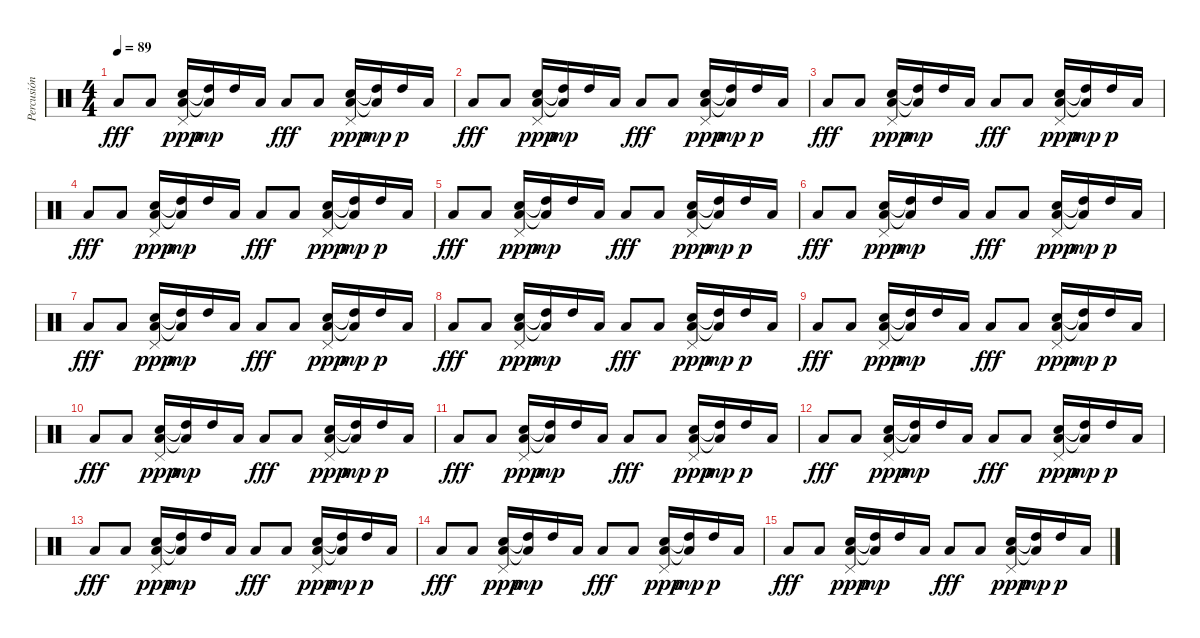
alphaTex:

\track ("Percusión" "Percusión") {instrument percussion}
\staff {score}
\articulation defaults
\ts (4 4)
\tempo 89
\clef neutral
\ks c "Low Floor Tom (hit)".8{dy fff} "Low Floor Tom (hit)".8
("Electric Snare (hit)" "Low Floor Tom (hit)" "Pedal Hi-Hat (hit)").16{dy ppp} ("High Tom (hit)"{t} "Low Floor Tom (hit)"{t}).16{dy mp} "High Tom (hit)".16 "Low Tom (hit)".16 "Low Floor Tom (hit)".8{dy fff} "Low Floor Tom (hit)".8 ("Electric Snare (hit)" "Low Floor Tom (hit)" "Pedal Hi-Hat (hit)").16{dy ppp} ("High Tom (hit)"{t} "Low Floor Tom (hit)"{t}).16{dy mp} "High Tom (hit)".16{dy p} "Low Tom (hit)".16 |
"Low Floor Tom (hit)".8{dy fff} "Low Floor Tom (hit)".8 ("Electric Snare (hit)" "Low Floor Tom (hit)" "Pedal Hi-Hat (hit)").16{dy ppp} ("High Tom (hit)"{t} "Low Floor Tom (hit)"{t}).16{dy mp} "High Tom (hit)".16 "Low Tom (hit)".16 "Low Floor Tom (hit)".8{dy fff} "Low Floor Tom (hit)".8 ("Electric Snare (hit)" "Low Floor Tom (hit)" "Pedal Hi-Hat (hit)").16{dy ppp} ("High Tom (hit)"{t} "Low Floor Tom (hit)"{t}).16{dy mp} "High Tom (hit)".16{dy p} "Low Tom (hit)".16 |
"Low Floor Tom (hit)".8{dy fff} "Low Floor Tom (hit)".8 ("Electric Snare (hit)" "Low Floor Tom (hit)" "Pedal Hi-Hat (hit)").16{dy ppp} ("High Tom (hit)"{t} "Low Floor Tom (hit)"{t}).16{dy mp} "High Tom (hit)".16 "Low Tom (hit)".16 "Low Floor Tom (hit)".8{dy fff} "Low Floor Tom (hit)".8 ("Electric Snare (hit)" "Low Floor Tom (hit)" "Pedal Hi-Hat (hit)").16{dy ppp} ("High Tom (hit)"{t} "Low Floor Tom (hit)"{t}).16{dy mp} "High Tom (hit)".16{dy p} "Low Tom (hit)".16 |
"Low Floor Tom (hit)".8{dy fff} "Low Floor Tom (hit)".8 ("Electric Snare (hit)" "Low Floor Tom (hit)" "Pedal Hi-Hat (hit)").16{dy ppp} ("High Tom (hit)"{t} "Low Floor Tom (hit)"{t}).16{dy mp} "High Tom (hit)".16 "Low Tom (hit)".16 "Low Floor Tom (hit)".8{dy fff} "Low Floor Tom (hit)".8 ("Electric Snare (hit)" "Low Floor Tom (hit)" "Pedal Hi-Hat (hit)").16{dy ppp} ("High Tom (hit)"{t} "Low Floor Tom (hit)"{t}).16{dy mp} "High Tom (hit)".16{dy p} "Low Tom (hit)".16 |
"Low Floor Tom (hit)".8{dy fff} "Low Floor Tom (hit)".8 ("Electric Snare (hit)" "Low Floor Tom (hit)" "Pedal Hi-Hat (hit)").16{dy ppp} ("High Tom (hit)"{t} "Low Floor Tom (hit)"{t}).16{dy mp} "High Tom (hit)".16 "Low Tom (hit)".16 "Low Floor Tom (hit)".8{dy fff} "Low Floor Tom (hit)".8 ("Electric Snare (hit)" "Low Floor Tom (hit)" "Pedal Hi-Hat (hit)").16{dy ppp} ("High Tom (hit)"{t} "Low Floor Tom (hit)"{t}).16{dy mp} "High Tom (hit)".16{dy p} "Low Tom (hit)".16 |
"Low Floor Tom (hit)".8{dy fff} "Low Floor Tom (hit)".8 ("Electric Snare (hit)" "Low Floor Tom (hit)" "Pedal Hi-Hat (hit)").16{dy ppp} ("High Tom (hit)"{t} "Low Floor Tom (hit)"{t}).16{dy mp} "High Tom (hit)".16 "Low Tom (hit)".16 "Low Floor Tom (hit)".8{dy fff} "Low Floor Tom (hit)".8 ("Electric Snare (hit)" "Low Floor Tom (hit)" "Pedal Hi-Hat (hit)").16{dy ppp} ("High Tom (hit)"{t} "Low Floor Tom (hit)"{t}).16{dy mp} "High Tom (hit)".16{dy p} "Low Tom (hit)".16 |
"Low Floor Tom (hit)".8{dy fff} "Low Floor Tom (hit)".8 ("Electric Snare (hit)" "Low Floor Tom (hit)" "Pedal Hi-Hat (hit)").16{dy ppp} ("High Tom (hit)"{t} "Low Floor Tom (hit)"{t}).16{dy mp} "High Tom (hit)".16 "Low Tom (hit)".16 "Low Floor Tom (hit)".8{dy fff} "Low Floor Tom (hit)".8 ("Electric Snare (hit)" "Low Floor Tom (hit)" "Pedal Hi-Hat (hit)").16{dy ppp} ("High Tom (hit)"{t} "Low Floor Tom (hit)"{t}).16{dy mp} "High Tom (hit)".16{dy p} "Low Tom (hit)".16 |
"Low Floor Tom (hit)".8{dy fff} "Low Floor Tom (hit)".8 ("Electric Snare (hit)" "Low Floor Tom (hit)" "Pedal Hi-Hat (hit)").16{dy ppp} ("High Tom (hit)"{t} "Low Floor Tom (hit)"{t}).16{dy mp} "High Tom (hit)".16 "Low Tom (hit)".16 "Low Floor Tom (hit)".8{dy fff} "Low Floor Tom (hit)".8 ("Electric Snare (hit)" "Low Floor Tom (hit)" "Pedal Hi-Hat (hit)").16{dy ppp} ("High Tom (hit)"{t} "Low Floor Tom (hit)"{t}).16{dy mp} "High Tom (hit)".16{dy p} "Low Tom (hit)".16 |
"Low Floor Tom (hit)".8{dy fff} "Low Floor Tom (hit)".8 ("Electric Snare (hit)" "Low Floor Tom (hit)" "Pedal Hi-Hat (hit)").16{dy ppp} ("High Tom (hit)"{t} "Low Floor Tom (hit)"{t}).16{dy mp} "High Tom (hit)".16 "Low Tom (hit)".16 "Low Floor Tom (hit)".8{dy fff} "Low Floor Tom (hit)".8 ("Electric Snare (hit)" "Low Floor Tom (hit)" "Pedal Hi-Hat (hit)").16{dy ppp} ("High Tom (hit)"{t} "Low Floor Tom (hit)"{t}).16{dy mp} "High Tom (hit)".16{dy p} "Low Tom (hit)".16 |
"Low Floor Tom (hit)".8{dy fff} "Low Floor Tom (hit)".8 ("Electric Snare (hit)" "Low Floor Tom (hit)" "Pedal Hi-Hat (hit)").16{dy ppp} ("High Tom (hit)"{t} "Low Floor Tom (hit)"{t}).16{dy mp} "High Tom (hit)".16 "Low Tom (hit)".16 "Low Floor Tom (hit)".8{dy fff} "Low Floor Tom (hit)".8 ("Electric Snare (hit)" "Low Floor Tom (hit)" "Pedal Hi-Hat (hit)").16{dy ppp} ("High Tom (hit)"{t} "Low Floor Tom (hit)"{t}).16{dy mp} "High Tom (hit)".16{dy p} "Low Tom (hit)".16 |
"Low Floor Tom (hit)".8{dy fff} "Low Floor Tom (hit)".8 ("Electric Snare (hit)" "Low Floor Tom (hit)" "Pedal Hi-Hat (hit)").16{dy ppp} ("High Tom (hit)"{t} "Low Floor Tom (hit)"{t}).16{dy mp} "High Tom (hit)".16 "Low Tom (hit)".16 "Low Floor Tom (hit)".8{dy fff} "Low Floor Tom (hit)".8 ("Electric Snare (hit)" "Low Floor Tom (hit)" "Pedal Hi-Hat (hit)").16{dy ppp} ("High Tom (hit)"{t} "Low Floor Tom (hit)"{t}).16{dy mp} "High Tom (hit)".16{dy p} "Low Tom (hit)".16 |
"Low Floor Tom (hit)".8{dy fff} "Low Floor Tom (hit)".8 ("Electric Snare (hit)" "Low Floor Tom (hit)" "Pedal Hi-Hat (hit)").16{dy ppp} ("High Tom (hit)"{t} "Low Floor Tom (hit)"{t}).16{dy mp} "High Tom (hit)".16 "Low Tom (hit)".16 "Low Floor Tom (hit)".8{dy fff} "Low Floor Tom (hit)".8 ("Electric Snare (hit)" "Low Floor Tom (hit)" "Pedal Hi-Hat (hit)").16{dy ppp} ("High Tom (hit)"{t} "Low Floor Tom (hit)"{t}).16{dy mp} "High Tom (hit)".16{dy p} "Low Tom (hit)".16 |
"Low Floor Tom (hit)".8{dy fff} "Low Floor Tom (hit)".8 ("Electric Snare (hit)" "Low Floor Tom (hit)" "Pedal Hi-Hat (hit)").16{dy ppp} ("High Tom (hit)"{t} "Low Floor Tom (hit)"{t}).16{dy mp} "High Tom (hit)".16 "Low Tom (hit)".16 "Low Floor Tom (hit)".8{dy fff} "Low Floor Tom (hit)".8 ("Electric Snare (hit)" "Low Floor Tom (hit)" "Pedal Hi-Hat (hit)").16{dy ppp} ("High Tom (hit)"{t} "Low Floor Tom (hit)"{t}).16{dy mp} "High Tom (hit)".16{dy p} "Low Tom (hit)".16 |
"Low Floor Tom (hit)".8{dy fff} "Low Floor Tom (hit)".8 ("Electric Snare (hit)" "Low Floor Tom (hit)" "Pedal Hi-Hat (hit)").16{dy ppp} ("High Tom (hit)"{t} "Low Floor Tom (hit)"{t}).16{dy mp} "High Tom (hit)".16 "Low Tom (hit)".16 "Low Floor Tom (hit)".8{dy fff} "Low Floor Tom (hit)".8 ("Electric Snare (hit)" "Low Floor Tom (hit)" "Pedal Hi-Hat (hit)").16{dy ppp} ("High Tom (hit)"{t} "Low Floor Tom (hit)"{t}).16{dy mp} "High Tom (hit)".16{dy p} "Low Tom (hit)".16 |
"Low Floor Tom (hit)".8{dy fff} "Low Floor Tom (hit)".8 ("Electric Snare (hit)" "Low Floor Tom (hit)" "Pedal Hi-Hat (hit)").16{dy ppp} ("High Tom (hit)"{t} "Low Floor Tom (hit)"{t}).16{dy mp} "High Tom (hit)".16 "Low Tom (hit)".16 "Low Floor Tom (hit)".8{dy fff} "Low Floor Tom (hit)".8 ("Electric Snare (hit)" "Low Floor Tom (hit)" "Pedal Hi-Hat (hit)").16{dy ppp} ("High Tom (hit)"{t} "Low Floor Tom (hit)"{t}).16{dy mp} "High Tom (hit)".16{dy p} "Low Tom (hit)".16
